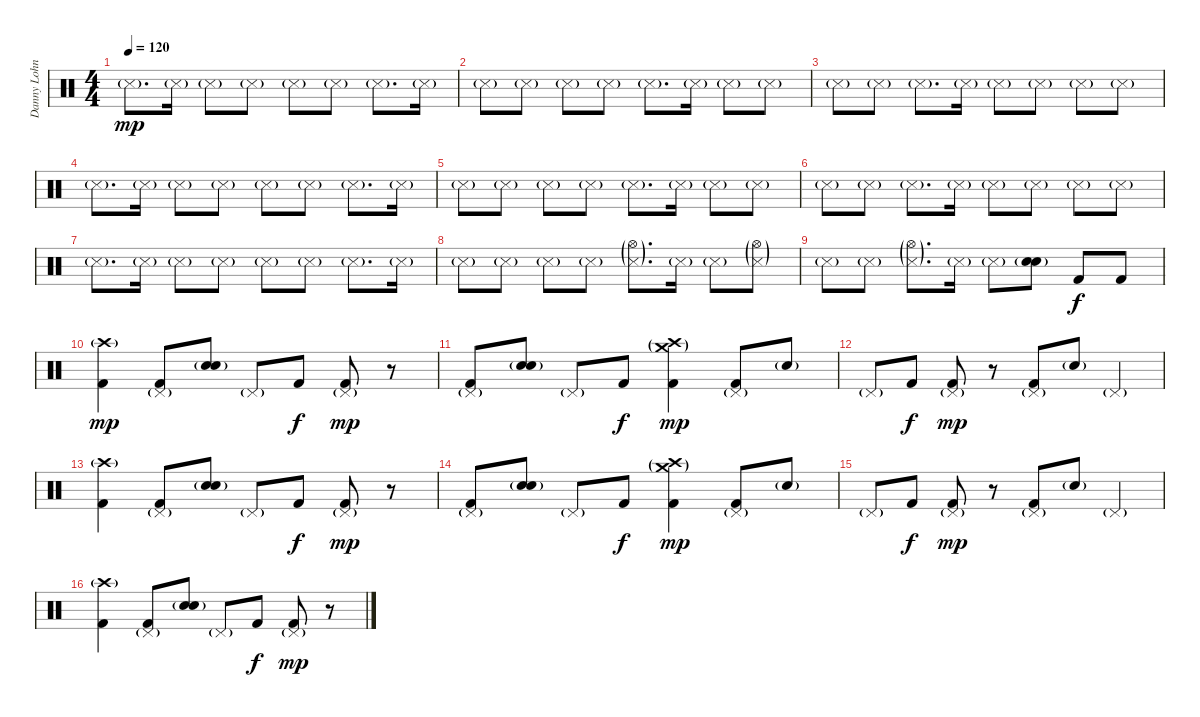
\track ("Danny Lohner" "Danny Lohn") {instrument percussion}
\staff {score}
\articulation defaults
\ts (4 4)
\tempo 120
\clef neutral
\ks c "Metronome (hit)"{g}.8{d dy mp} "Metronome (hit)"{g}.16 "Metronome (hit)"{g}.8 "Metronome (hit)"{g}.8 "Metronome (hit)"{g}.8 "Metronome (hit)"{g}.8 "Metronome (hit)"{g}.8{d} "Metronome (hit)"{g}.16
|
"Metronome (hit)"{g}.8 "Metronome (hit)"{g}.8 "Metronome (hit)"{g}.8 "Metronome (hit)"{g}.8 "Metronome (hit)"{g}.8{d} "Metronome (hit)"{g}.16 "Metronome (hit)"{g}.8 "Metronome (hit)"{g}.8 |
"Metronome (hit)"{g}.8 "Metronome (hit)"{g}.8 "Metronome (hit)"{g}.8{d} "Metronome (hit)"{g}.16 "Metronome (hit)"{g}.8 "Metronome (hit)"{g}.8 "Metronome (hit)"{g}.8 "Metronome (hit)"{g}.8 |
"Metronome (hit)"{g}.8{d} "Metronome (hit)"{g}.16 "Metronome (hit)"{g}.8 "Metronome (hit)"{g}.8 "Metronome (hit)"{g}.8 "Metronome (hit)"{g}.8 "Metronome (hit)"{g}.8{d} "Metronome (hit)"{g}.16 |
"Metronome (hit)"{g}.8 "Metronome (hit)"{g}.8 "Metronome (hit)"{g}.8 "Metronome (hit)"{g}.8 "Metronome (hit)"{g}.8{d} "Metronome (hit)"{g}.16 "Metronome (hit)"{g}.8 "Metronome (hit)"{g}.8 |
"Metronome (hit)"{g}.8 "Metronome (hit)"{g}.8 "Metronome (hit)"{g}.8{d} "Metronome (hit)"{g}.16 "Metronome (hit)"{g}.8 "Metronome (hit)"{g}.8 "Metronome (hit)"{g}.8 "Metronome (hit)"{g}.8 |
"Metronome (hit)"{g}.8{d} "Metronome (hit)"{g}.16 "Metronome (hit)"{g}.8 "Metronome (hit)"{g}.8 "Metronome (hit)"{g}.8 "Metronome (hit)"{g}.8 "Metronome (hit)"{g}.8{d} "Metronome (hit)"{g}.16 |
"Metronome (hit)"{g}.8 "Metronome (hit)"{g}.8 "Metronome (hit)"{g}.8 "Metronome (hit)"{g}.8 ("Hi-Hat (open)"{g} "Metronome (hit)"{g}).8{d} "Metronome (hit)"{g}.16 "Metronome (hit)"{g}.8 ("Hi-Hat (open)"{g} "Metronome (hit)"{g}).8 |
"Metronome (hit)"{g}.8 "Metronome (hit)"{g}.8 ("Hi-Hat (open)"{g} "Metronome (hit)"{g}).8{d} "Metronome (hit)"{g}.16 "Metronome (hit)"{g}.8 ("Hand Clap (hit)"{g} "Electric Snare (hit)"{g}).8 "Kick (hit) 2".8{dy f} "Kick (hit) 2".8 |
("Crash high (hit)"{g} "Kick (hit) 2").4{dy mp} ("Pedal Hi-Hat (hit)"{g} "Kick (hit) 2").8 ("Hand Clap (hit)"{g} "Electric Snare (hit)"{g}).8 "Pedal Hi-Hat (hit)"{g}.8 "Kick (hit) 2".8{dy f} ("Pedal Hi-Hat (hit)"{g} "Kick (hit) 2").8{dy mp} r.8 |
("Pedal Hi-Hat (hit)"{g} "Kick (hit) 2").8 ("Hand Clap (hit)"{g} "Electric Snare (hit)"{g}).8 "Pedal Hi-Hat (hit)"{g}.8 "Kick (hit) 2".8{dy f} ("Crash high (hit)"{g} "Crash medium (hit)"{g} "Kick (hit) 2").4{dy mp} ("Pedal Hi-Hat (hit)"{g} "Kick (hit) 2").8 "Electric Snare (hit)"{g}.8 |
"Pedal Hi-Hat (hit)"{g}.8 "Kick (hit) 2".8{dy f} ("Pedal Hi-Hat (hit)"{g} "Kick (hit) 2").8{dy mp} r.8 ("Pedal Hi-Hat (hit)"{g} "Kick (hit) 2").8 "Electric Snare (hit)"{g}.8 "Pedal Hi-Hat (hit)"{g}.4 |
("Crash high (hit)"{g} "Kick (hit) 2").4 ("Pedal Hi-Hat (hit)"{g} "Kick (hit) 2").8 ("Hand Clap (hit)"{g} "Electric Snare (hit)"{g}).8 "Pedal Hi-Hat (hit)"{g}.8 "Kick (hit) 2".8{dy f} ("Pedal Hi-Hat (hit)"{g} "Kick (hit) 2").8{dy mp} r.8 |
("Pedal Hi-Hat (hit)"{g} "Kick (hit) 2").8 ("Hand Clap (hit)"{g} "Electric Snare (hit)"{g}).8 "Pedal Hi-Hat (hit)"{g}.8 "Kick (hit) 2".8{dy f} ("Crash high (hit)"{g} "Crash medium (hit)"{g} "Kick (hit) 2").4{dy mp} ("Pedal Hi-Hat (hit)"{g} "Kick (hit) 2").8 "Electric Snare (hit)"{g}.8 |
"Pedal Hi-Hat (hit)"{g}.8 "Kick (hit) 2".8{dy f} ("Pedal Hi-Hat (hit)"{g} "Kick (hit) 2").8{dy mp} r.8 ("Pedal Hi-Hat (hit)"{g} "Kick (hit) 2").8 "Electric Snare (hit)"{g}.8 "Pedal Hi-Hat (hit)"{g}.4 |
("Crash high (hit)"{g} "Kick (hit) 2").4 ("Pedal Hi-Hat (hit)"{g} "Kick (hit) 2").8 ("Hand Clap (hit)"{g} "Electric Snare (hit)"{g}).8 "Pedal Hi-Hat (hit)"{g}.8 "Kick (hit) 2".8{dy f} ("Pedal Hi-Hat (hit)"{g} "Kick (hit) 2").8{dy mp} r.8
